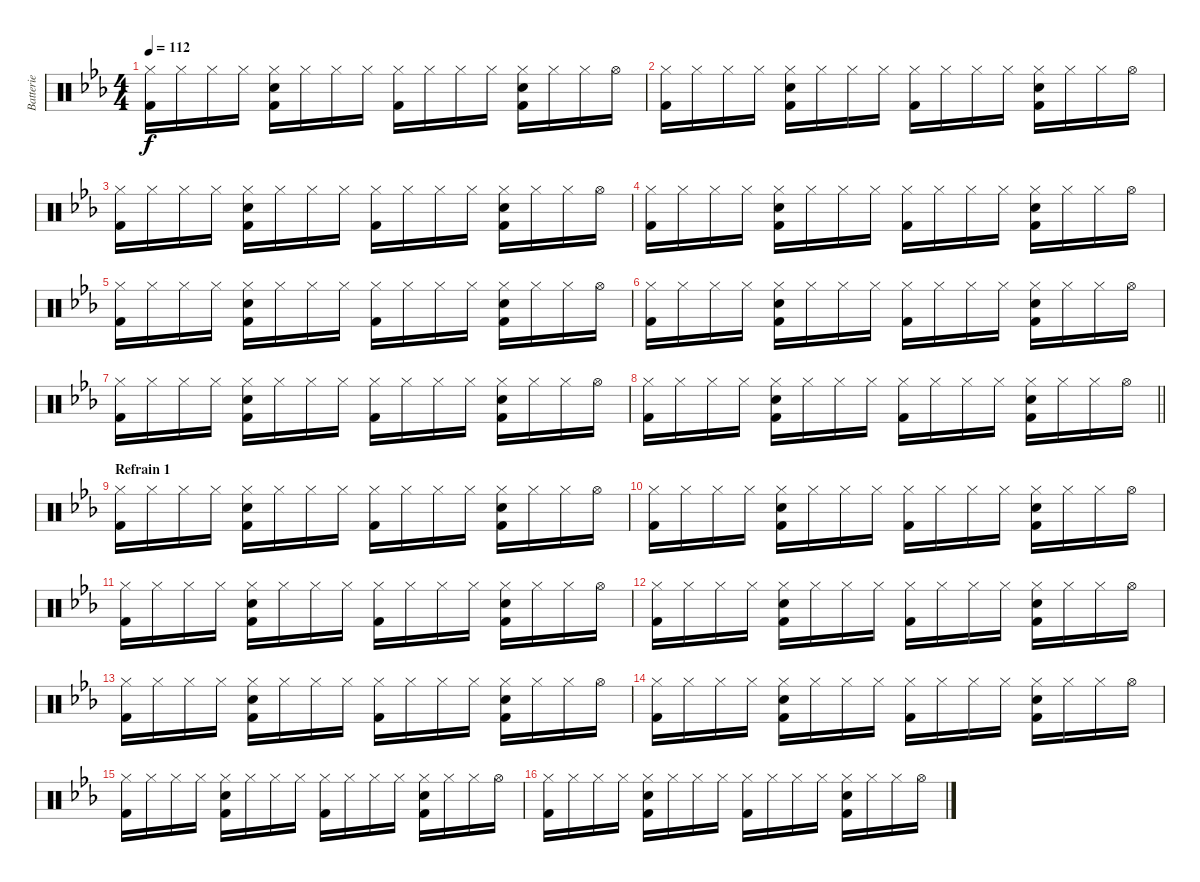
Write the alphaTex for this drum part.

\track ("Batterie" "Batterie") {instrument percussion}
\staff {score}
\articulation defaults
\ts (4 4)
\tempo 112
\clef neutral
\ks cminor
("Hi-Hat (closed)" "Kick (hit) 2").16{dy f} "Hi-Hat (closed)".16 "Hi-Hat (closed)".16 "Hi-Hat (closed)".16 ("Hi-Hat (closed)" "Electric Snare (hit)" "Kick (hit) 2").16 "Hi-Hat (closed)".16 "Hi-Hat (closed)".16 "Hi-Hat (closed)".16 ("Hi-Hat (closed)" "Kick (hit) 2").16 "Hi-Hat (closed)".16 "Hi-Hat (closed)".16 "Hi-Hat (closed)".16 ("Hi-Hat (closed)" "Electric Snare (hit)" "Kick (hit) 2").16 "Hi-Hat (closed)".16 "Hi-Hat (closed)".16 "Hi-Hat (open)".16 |
("Hi-Hat (closed)" "Kick (hit) 2").16 "Hi-Hat (closed)".16 "Hi-Hat (closed)".16 "Hi-Hat (closed)".16 ("Hi-Hat (closed)" "Electric Snare (hit)" "Kick (hit) 2").16 "Hi-Hat (closed)".16 "Hi-Hat (closed)".16 "Hi-Hat (closed)".16 ("Hi-Hat (closed)" "Kick (hit) 2").16 "Hi-Hat (closed)".16 "Hi-Hat (closed)".16 "Hi-Hat (closed)".16 ("Hi-Hat (closed)" "Electric Snare (hit)" "Kick (hit) 2").16 "Hi-Hat (closed)".16 "Hi-Hat (closed)".16 "Hi-Hat (open)".16 |
("Hi-Hat (closed)" "Kick (hit) 2").16 "Hi-Hat (closed)".16 "Hi-Hat (closed)".16 "Hi-Hat (closed)".16 ("Hi-Hat (closed)" "Electric Snare (hit)" "Kick (hit) 2").16 "Hi-Hat (closed)".16 "Hi-Hat (closed)".16 "Hi-Hat (closed)".16 ("Hi-Hat (closed)" "Kick (hit) 2").16 "Hi-Hat (closed)".16 "Hi-Hat (closed)".16 "Hi-Hat (closed)".16 ("Hi-Hat (closed)" "Electric Snare (hit)" "Kick (hit) 2").16 "Hi-Hat (closed)".16 "Hi-Hat (closed)".16 "Hi-Hat (open)".16 |
("Hi-Hat (closed)" "Kick (hit) 2").16 "Hi-Hat (closed)".16 "Hi-Hat (closed)".16 "Hi-Hat (closed)".16 ("Hi-Hat (closed)" "Electric Snare (hit)" "Kick (hit) 2").16 "Hi-Hat (closed)".16 "Hi-Hat (closed)".16 "Hi-Hat (closed)".16 ("Hi-Hat (closed)" "Kick (hit) 2").16 "Hi-Hat (closed)".16 "Hi-Hat (closed)".16 "Hi-Hat (closed)".16 ("Hi-Hat (closed)" "Electric Snare (hit)" "Kick (hit) 2").16 "Hi-Hat (closed)".16 "Hi-Hat (closed)".16 "Hi-Hat (open)".16 |
("Hi-Hat (closed)" "Kick (hit) 2").16 "Hi-Hat (closed)".16 "Hi-Hat (closed)".16 "Hi-Hat (closed)".16 ("Hi-Hat (closed)" "Electric Snare (hit)" "Kick (hit) 2").16 "Hi-Hat (closed)".16 "Hi-Hat (closed)".16 "Hi-Hat (closed)".16 ("Hi-Hat (closed)" "Kick (hit) 2").16 "Hi-Hat (closed)".16 "Hi-Hat (closed)".16 "Hi-Hat (closed)".16 ("Hi-Hat (closed)" "Electric Snare (hit)" "Kick (hit) 2").16 "Hi-Hat (closed)".16 "Hi-Hat (closed)".16 "Hi-Hat (open)".16 |
("Hi-Hat (closed)" "Kick (hit) 2").16 "Hi-Hat (closed)".16 "Hi-Hat (closed)".16 "Hi-Hat (closed)".16 ("Hi-Hat (closed)" "Electric Snare (hit)" "Kick (hit) 2").16 "Hi-Hat (closed)".16 "Hi-Hat (closed)".16 "Hi-Hat (closed)".16 ("Hi-Hat (closed)" "Kick (hit) 2").16 "Hi-Hat (closed)".16 "Hi-Hat (closed)".16 "Hi-Hat (closed)".16 ("Hi-Hat (closed)" "Electric Snare (hit)" "Kick (hit) 2").16 "Hi-Hat (closed)".16 "Hi-Hat (closed)".16 "Hi-Hat (open)".16 |
("Hi-Hat (closed)" "Kick (hit) 2").16 "Hi-Hat (closed)".16 "Hi-Hat (closed)".16 "Hi-Hat (closed)".16 ("Hi-Hat (closed)" "Electric Snare (hit)" "Kick (hit) 2").16 "Hi-Hat (closed)".16 "Hi-Hat (closed)".16 "Hi-Hat (closed)".16 ("Hi-Hat (closed)" "Kick (hit) 2").16 "Hi-Hat (closed)".16 "Hi-Hat (closed)".16 "Hi-Hat (closed)".16 ("Hi-Hat (closed)" "Electric Snare (hit)" "Kick (hit) 2").16 "Hi-Hat (closed)".16 "Hi-Hat (closed)".16 "Hi-Hat (open)".16 |
\barLineRight lightlight
("Hi-Hat (closed)" "Kick (hit) 2").16 "Hi-Hat (closed)".16 "Hi-Hat (closed)".16 "Hi-Hat (closed)".16 ("Hi-Hat (closed)" "Electric Snare (hit)" "Kick (hit) 2").16 "Hi-Hat (closed)".16 "Hi-Hat (closed)".16 "Hi-Hat (closed)".16 ("Hi-Hat (closed)" "Kick (hit) 2").16 "Hi-Hat (closed)".16 "Hi-Hat (closed)".16 "Hi-Hat (closed)".16 ("Hi-Hat (closed)" "Electric Snare (hit)" "Kick (hit) 2").16 "Hi-Hat (closed)".16 "Hi-Hat (closed)".16 "Hi-Hat (open)".16 |
\section ("" "Refrain 1")
("Hi-Hat (closed)" "Kick (hit) 2").16 "Hi-Hat (closed)".16 "Hi-Hat (closed)".16 "Hi-Hat (closed)".16 ("Hi-Hat (closed)" "Electric Snare (hit)" "Kick (hit) 2").16 "Hi-Hat (closed)".16 "Hi-Hat (closed)".16 "Hi-Hat (closed)".16 ("Hi-Hat (closed)" "Kick (hit) 2").16 "Hi-Hat (closed)".16 "Hi-Hat (closed)".16 "Hi-Hat (closed)".16 ("Hi-Hat (closed)" "Electric Snare (hit)" "Kick (hit) 2").16 "Hi-Hat (closed)".16 "Hi-Hat (closed)".16 "Hi-Hat (open)".16 |
("Hi-Hat (closed)" "Kick (hit) 2").16 "Hi-Hat (closed)".16 "Hi-Hat (closed)".16 "Hi-Hat (closed)".16 ("Hi-Hat (closed)" "Electric Snare (hit)" "Kick (hit) 2").16 "Hi-Hat (closed)".16 "Hi-Hat (closed)".16 "Hi-Hat (closed)".16 ("Hi-Hat (closed)" "Kick (hit) 2").16 "Hi-Hat (closed)".16 "Hi-Hat (closed)".16 "Hi-Hat (closed)".16 ("Hi-Hat (closed)" "Electric Snare (hit)" "Kick (hit) 2").16 "Hi-Hat (closed)".16 "Hi-Hat (closed)".16 "Hi-Hat (open)".16 |
("Hi-Hat (closed)" "Kick (hit) 2").16 "Hi-Hat (closed)".16 "Hi-Hat (closed)".16 "Hi-Hat (closed)".16 ("Hi-Hat (closed)" "Electric Snare (hit)" "Kick (hit) 2").16 "Hi-Hat (closed)".16 "Hi-Hat (closed)".16 "Hi-Hat (closed)".16 ("Hi-Hat (closed)" "Kick (hit) 2").16 "Hi-Hat (closed)".16 "Hi-Hat (closed)".16 "Hi-Hat (closed)".16 ("Hi-Hat (closed)" "Electric Snare (hit)" "Kick (hit) 2").16 "Hi-Hat (closed)".16 "Hi-Hat (closed)".16 "Hi-Hat (open)".16 |
("Hi-Hat (closed)" "Kick (hit) 2").16 "Hi-Hat (closed)".16 "Hi-Hat (closed)".16 "Hi-Hat (closed)".16 ("Hi-Hat (closed)" "Electric Snare (hit)" "Kick (hit) 2").16 "Hi-Hat (closed)".16 "Hi-Hat (closed)".16 "Hi-Hat (closed)".16 ("Hi-Hat (closed)" "Kick (hit) 2").16 "Hi-Hat (closed)".16 "Hi-Hat (closed)".16 "Hi-Hat (closed)".16 ("Hi-Hat (closed)" "Electric Snare (hit)" "Kick (hit) 2").16 "Hi-Hat (closed)".16 "Hi-Hat (closed)".16 "Hi-Hat (open)".16 |
("Hi-Hat (closed)" "Kick (hit) 2").16 "Hi-Hat (closed)".16 "Hi-Hat (closed)".16 "Hi-Hat (closed)".16 ("Hi-Hat (closed)" "Electric Snare (hit)" "Kick (hit) 2").16 "Hi-Hat (closed)".16 "Hi-Hat (closed)".16 "Hi-Hat (closed)".16 ("Hi-Hat (closed)" "Kick (hit) 2").16 "Hi-Hat (closed)".16 "Hi-Hat (closed)".16 "Hi-Hat (closed)".16 ("Hi-Hat (closed)" "Electric Snare (hit)" "Kick (hit) 2").16 "Hi-Hat (closed)".16 "Hi-Hat (closed)".16 "Hi-Hat (open)".16 |
("Hi-Hat (closed)" "Kick (hit) 2").16 "Hi-Hat (closed)".16 "Hi-Hat (closed)".16 "Hi-Hat (closed)".16 ("Hi-Hat (closed)" "Electric Snare (hit)" "Kick (hit) 2").16 "Hi-Hat (closed)".16 "Hi-Hat (closed)".16 "Hi-Hat (closed)".16 ("Hi-Hat (closed)" "Kick (hit) 2").16 "Hi-Hat (closed)".16 "Hi-Hat (closed)".16 "Hi-Hat (closed)".16 ("Hi-Hat (closed)" "Electric Snare (hit)" "Kick (hit) 2").16 "Hi-Hat (closed)".16 "Hi-Hat (closed)".16 "Hi-Hat (open)".16 |
("Hi-Hat (closed)" "Kick (hit) 2").16 "Hi-Hat (closed)".16 "Hi-Hat (closed)".16 "Hi-Hat (closed)".16 ("Hi-Hat (closed)" "Electric Snare (hit)" "Kick (hit) 2").16 "Hi-Hat (closed)".16 "Hi-Hat (closed)".16 "Hi-Hat (closed)".16 ("Hi-Hat (closed)" "Kick (hit) 2").16 "Hi-Hat (closed)".16 "Hi-Hat (closed)".16 "Hi-Hat (closed)".16 ("Hi-Hat (closed)" "Electric Snare (hit)" "Kick (hit) 2").16 "Hi-Hat (closed)".16 "Hi-Hat (closed)".16 "Hi-Hat (open)".16 |
("Hi-Hat (closed)" "Kick (hit) 2").16 "Hi-Hat (closed)".16 "Hi-Hat (closed)".16 "Hi-Hat (closed)".16 ("Hi-Hat (closed)" "Electric Snare (hit)" "Kick (hit) 2").16 "Hi-Hat (closed)".16 "Hi-Hat (closed)".16 "Hi-Hat (closed)".16 ("Hi-Hat (closed)" "Kick (hit) 2").16 "Hi-Hat (closed)".16 "Hi-Hat (closed)".16 "Hi-Hat (closed)".16 ("Hi-Hat (closed)" "Electric Snare (hit)" "Kick (hit) 2").16 "Hi-Hat (closed)".16 "Hi-Hat (closed)".16 "Hi-Hat (open)".16
